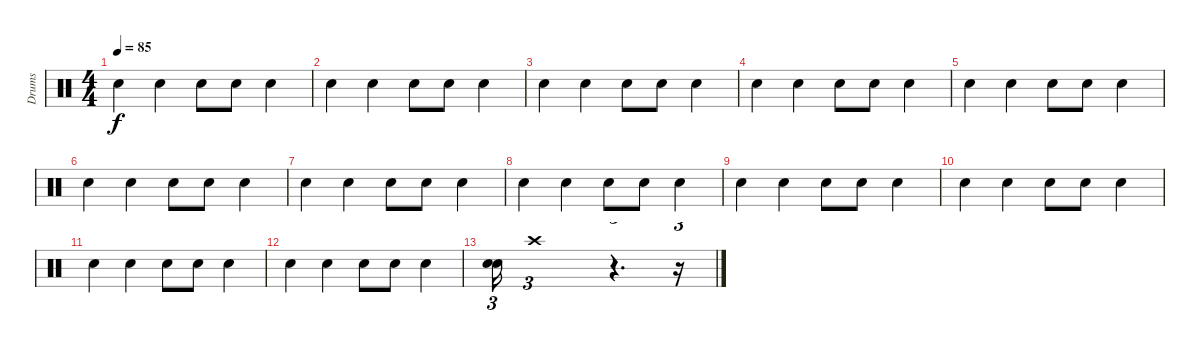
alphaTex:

\track ("Drums" "Drums") {instrument percussion}
\staff {score}
\articulation defaults
\ts (4 4)
\tempo 85
\clef neutral
\ks c "Snare (hit) 2".4{dy f} "Electric Snare (hit)".4 "Snare (hit) 2".8 "Snare (hit) 2".8 "Electric Snare (hit)".4
|
"Snare (hit) 2".4 "Electric Snare (hit)".4 "Snare (hit) 2".8 "Snare (hit) 2".8 "Electric Snare (hit)".4 |
"Snare (hit) 2".4 "Electric Snare (hit)".4 "Snare (hit) 2".8 "Snare (hit) 2".8 "Electric Snare (hit)".4 |
"Snare (hit) 2".4 "Electric Snare (hit)".4 "Snare (hit) 2".8 "Snare (hit) 2".8 "Electric Snare (hit)".4 |
"Snare (hit) 2".4 "Electric Snare (hit)".4 "Snare (hit) 2".8 "Snare (hit) 2".8 "Electric Snare (hit)".4 |
"Snare (hit) 2".4 "Electric Snare (hit)".4 "Snare (hit) 2".8 "Snare (hit) 2".8 "Electric Snare (hit)".4 |
"Snare (hit) 2".4 "Electric Snare (hit)".4 "Snare (hit) 2".8 "Snare (hit) 2".8 "Electric Snare (hit)".4 |
"Snare (hit) 2".4 "Electric Snare (hit)".4 "Snare (hit) 2".8 "Snare (hit) 2".8 "Electric Snare (hit)".4 |
"Snare (hit) 2".4 "Electric Snare (hit)".4 "Snare (hit) 2".8 "Snare (hit) 2".8 "Electric Snare (hit)".4 |
"Snare (hit) 2".4 "Electric Snare (hit)".4 "Snare (hit) 2".8 "Snare (hit) 2".8 "Electric Snare (hit)".4 |
"Snare (hit) 2".4 "Electric Snare (hit)".4 "Snare (hit) 2".8 "Snare (hit) 2".8 "Electric Snare (hit)".4 |
"Snare (hit) 2".4 "Electric Snare (hit)".4 "Snare (hit) 2".8 "Snare (hit) 2".8 "Electric Snare (hit)".4 |
("Snare (hit) 2" "Snare (hit) 2").16{tu (3 2)} "Crash high (hit)".1{tu (3 2)} r.4{d tu (3 2)} r.16{tu (3 2)}
